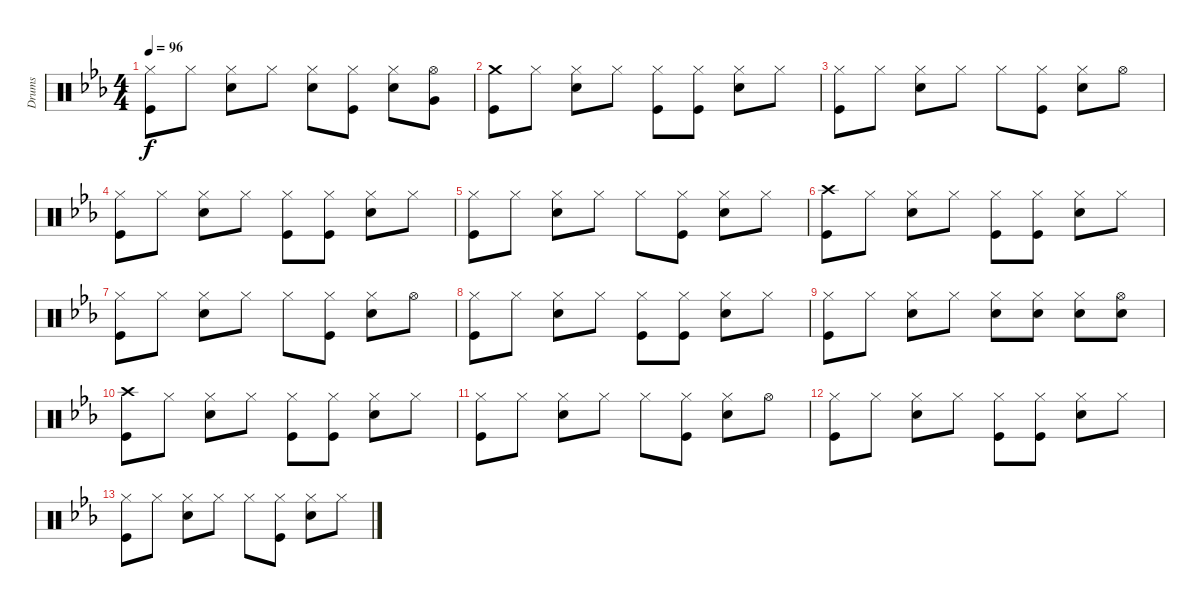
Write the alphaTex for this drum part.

\track ("Drums" "Drums") {instrument percussion}
\staff {score}
\articulation defaults
\ts (4 4)
\tempo 96
\clef neutral
\ks cminor
("Hi-Hat (closed)" "Kick (hit)").8{dy f} "Hi-Hat (closed)".8 ("Hi-Hat (closed)" "Snare (hit) 2").8 "Hi-Hat (closed)".8 ("Hi-Hat (closed)" "Snare (hit) 2").8 ("Hi-Hat (closed)" "Kick (hit)").8 ("Hi-Hat (closed)" "Snare (hit) 2").8 ("Hi-Hat (open)" "Very Low Tom (hit)").8 |
("Crash medium (hit)" "Kick (hit)").8 "Hi-Hat (closed)".8 ("Hi-Hat (closed)" "Snare (hit) 2").8 "Hi-Hat (closed)".8 ("Hi-Hat (closed)" "Kick (hit)").8 ("Hi-Hat (closed)" "Kick (hit)").8 ("Hi-Hat (closed)" "Snare (hit) 2").8 "Hi-Hat (closed)".8 |
("Hi-Hat (closed)" "Kick (hit)").8 "Hi-Hat (closed)".8 ("Hi-Hat (closed)" "Snare (hit) 2").8 "Hi-Hat (closed)".8 "Hi-Hat (closed)".8 ("Hi-Hat (closed)" "Kick (hit)").8 ("Hi-Hat (closed)" "Snare (hit) 2").8 "Hi-Hat (open)".8 |
("Hi-Hat (closed)" "Kick (hit)").8 "Hi-Hat (closed)".8 ("Hi-Hat (closed)" "Snare (hit) 2").8 "Hi-Hat (closed)".8 ("Hi-Hat (closed)" "Kick (hit)").8 ("Hi-Hat (closed)" "Kick (hit)").8 ("Hi-Hat (closed)" "Snare (hit) 2").8 "Hi-Hat (closed)".8 |
("Hi-Hat (closed)" "Kick (hit)").8 "Hi-Hat (closed)".8 ("Hi-Hat (closed)" "Snare (hit) 2").8 "Hi-Hat (closed)".8 "Hi-Hat (closed)".8 ("Hi-Hat (closed)" "Kick (hit)").8 ("Hi-Hat (closed)" "Snare (hit) 2").8 "Hi-Hat (closed)".8 |
("Crash high (hit)" "Kick (hit)").8 "Hi-Hat (closed)".8 ("Hi-Hat (closed)" "Snare (hit) 2").8 "Hi-Hat (closed)".8 ("Hi-Hat (closed)" "Kick (hit)").8 ("Hi-Hat (closed)" "Kick (hit)").8 ("Hi-Hat (closed)" "Snare (hit) 2").8 "Hi-Hat (closed)".8 |
("Hi-Hat (closed)" "Kick (hit)").8 "Hi-Hat (closed)".8 ("Hi-Hat (closed)" "Snare (hit) 2").8 "Hi-Hat (closed)".8 "Hi-Hat (closed)".8 ("Hi-Hat (closed)" "Kick (hit)").8 ("Hi-Hat (closed)" "Snare (hit) 2").8 "Hi-Hat (open)".8 |
("Hi-Hat (closed)" "Kick (hit)").8 "Hi-Hat (closed)".8 ("Hi-Hat (closed)" "Snare (hit) 2").8 "Hi-Hat (closed)".8 ("Hi-Hat (closed)" "Kick (hit)").8 ("Hi-Hat (closed)" "Kick (hit)").8 ("Hi-Hat (closed)" "Snare (hit) 2").8 "Hi-Hat (closed)".8 |
("Hi-Hat (closed)" "Kick (hit)").8 "Hi-Hat (closed)".8 ("Hi-Hat (closed)" "Snare (hit) 2").8 "Hi-Hat (closed)".8 ("Hi-Hat (closed)" "Snare (hit) 2").8 ("Hi-Hat (closed)" "Snare (hit) 2").8 ("Hi-Hat (closed)" "Snare (hit) 2").8 ("Hi-Hat (open)" "Snare (hit) 2").8 |
("Crash high (hit)" "Kick (hit)").8{volume 0} "Hi-Hat (closed)".8 ("Hi-Hat (closed)" "Snare (hit) 2").8 "Hi-Hat (closed)".8 ("Hi-Hat (closed)" "Kick (hit)").8 ("Hi-Hat (closed)" "Kick (hit)").8 ("Hi-Hat (closed)" "Snare (hit) 2").8 "Hi-Hat (closed)".8 |
("Hi-Hat (closed)" "Kick (hit)").8 "Hi-Hat (closed)".8 ("Hi-Hat (closed)" "Snare (hit) 2").8 "Hi-Hat (closed)".8 "Hi-Hat (closed)".8 ("Hi-Hat (closed)" "Kick (hit)").8 ("Hi-Hat (closed)" "Snare (hit) 2").8 "Hi-Hat (open)".8 |
("Hi-Hat (closed)" "Kick (hit)").8 "Hi-Hat (closed)".8 ("Hi-Hat (closed)" "Snare (hit) 2").8 "Hi-Hat (closed)".8 ("Hi-Hat (closed)" "Kick (hit)").8 ("Hi-Hat (closed)" "Kick (hit)").8 ("Hi-Hat (closed)" "Snare (hit) 2").8 "Hi-Hat (closed)".8 |
("Hi-Hat (closed)" "Kick (hit)").8 "Hi-Hat (closed)".8 ("Hi-Hat (closed)" "Snare (hit) 2").8 "Hi-Hat (closed)".8 "Hi-Hat (closed)".8 ("Hi-Hat (closed)" "Kick (hit)").8 ("Hi-Hat (closed)" "Snare (hit) 2").8 "Hi-Hat (closed)".8
